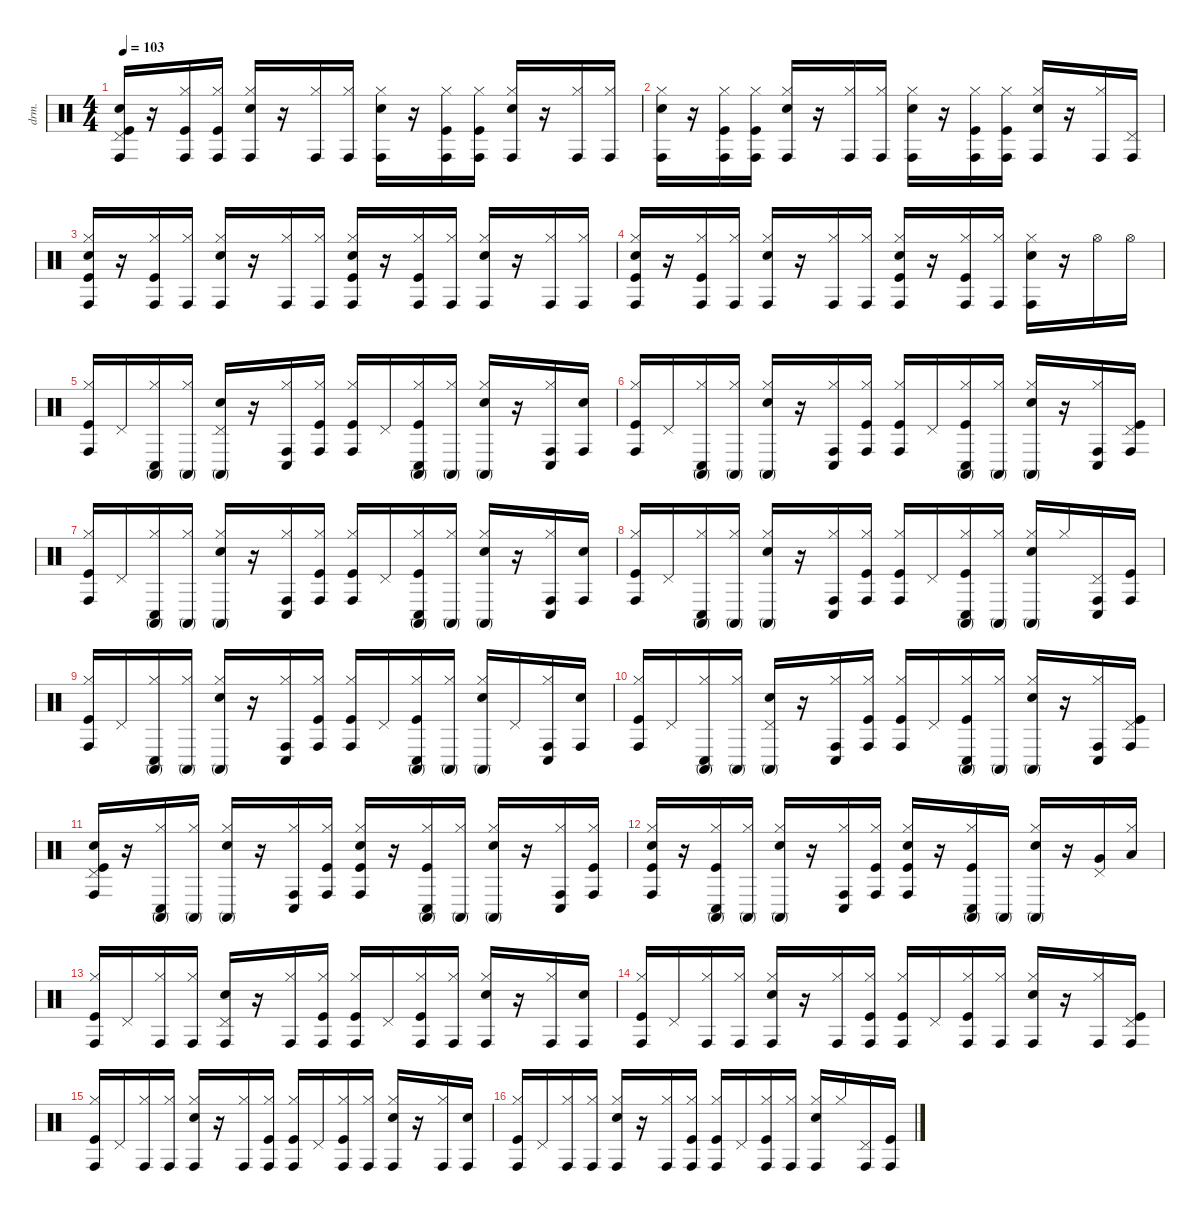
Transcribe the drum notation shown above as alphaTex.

\defaultSystemsLayout 4
\hideDynamics
\bracketExtendMode nobrackets
\otherSystemsTrackNameOrientation horizontal
\track ("drums" "drm.") {instrument percussion}
\staff {score}
\articulation defaults
\ts (4 4)
\tempo 103
\clef neutral
\ks c
("Snare (hit) 2" "Kick (hit)" "Pedal Hi-Hat (hit)" "Conga high (hit)").16{dy f} r.16 ("Kick (hit)" "Hi-Hat (closed)" "Conga high (hit)").16 ("Kick (hit)" "Hi-Hat (closed)" "Conga high (hit)").16 ("Snare (hit) 2" "Hi-Hat (closed)" "Conga high (hit)").16 r.16 ("Hi-Hat (closed)" "Conga high (hit)").16 ("Hi-Hat (closed)" "Conga high (hit)").16 ("Hi-Hat (closed)" "Conga high (hit)" "Snare (hit) 2").16 r.16 ("Kick (hit)" "Hi-Hat (closed)" "Conga high (hit)").16 ("Kick (hit)" "Hi-Hat (closed)" "Conga high (hit)").16 ("Snare (hit) 2" "Hi-Hat (closed)" "Conga high (hit)").16 r.16 ("Hi-Hat (closed)" "Conga high (hit)").16 ("Hi-Hat (closed)" "Conga high (hit)").16 |
("Hi-Hat (closed)" "Conga high (hit)" "Snare (hit) 2").16 r.16 ("Kick (hit)" "Hi-Hat (closed)" "Conga high (hit)").16 ("Kick (hit)" "Hi-Hat (closed)" "Conga high (hit)").16 ("Snare (hit) 2" "Hi-Hat (closed)" "Conga high (hit)").16 r.16 ("Hi-Hat (closed)" "Conga high (hit)").16 ("Hi-Hat (closed)" "Conga high (hit)").16 ("Snare (hit) 2" "Hi-Hat (closed)" "Conga high (hit)").16 r.16 ("Kick (hit)" "Hi-Hat (closed)" "Conga high (hit)").16 ("Kick (hit)" "Hi-Hat (closed)" "Conga high (hit)").16 ("Snare (hit) 2" "Hi-Hat (closed)" "Conga high (hit)").16 r.16 ("Hi-Hat (closed)" "Conga high (hit)").16 ("Pedal Hi-Hat (hit)" "Conga high (hit)").16 |
("Kick (hit)" "Snare (hit) 2" "Hi-Hat (closed)" "Conga high (hit)").16 r.16 ("Kick (hit)" "Hi-Hat (closed)" "Conga high (hit)").16 ("Hi-Hat (closed)" "Conga high (hit)").16 ("Snare (hit) 2" "Hi-Hat (closed)" "Conga high (hit)").16 r.16 ("Hi-Hat (closed)" "Conga high (hit)").16 ("Hi-Hat (closed)" "Conga high (hit)").16 ("Kick (hit)" "Snare (hit) 2" "Hi-Hat (closed)" "Conga high (hit)").16 r.16 ("Kick (hit)" "Hi-Hat (closed)" "Conga high (hit)").16 ("Hi-Hat (closed)" "Conga high (hit)").16 ("Snare (hit) 2" "Hi-Hat (closed)" "Conga high (hit)").16 r.16 ("Hi-Hat (closed)" "Conga high (hit)").16 ("Hi-Hat (closed)" "Conga high (hit)").16 |
("Kick (hit)" "Snare (hit) 2" "Hi-Hat (closed)" "Conga high (hit)").16 r.16 ("Kick (hit)" "Hi-Hat (closed)" "Conga high (hit)").16 ("Hi-Hat (closed)" "Conga high (hit)").16 ("Snare (hit) 2" "Hi-Hat (closed)" "Conga high (hit)").16 r.16 ("Hi-Hat (closed)" "Conga high (hit)").16 ("Hi-Hat (closed)" "Conga high (hit)").16 ("Kick (hit)" "Snare (hit) 2" "Hi-Hat (closed)" "Conga high (hit)").16 r.16 ("Kick (hit)" "Hi-Hat (closed)" "Conga high (hit)").16 ("Hi-Hat (closed)" "Conga high (hit)").16 ("Snare (hit) 2" "Hi-Hat (closed)" "Conga high (hit)").16 r.16 "Hi-Hat (open)".16 "Hi-Hat (open)".16 |
("Kick (hit)" "Hi-Hat (closed)" "Conga high (hit)").16 "Pedal Hi-Hat (hit)".16 ("Hi-Hat (closed)" "Conga high (mute)" "Conga low (hit)").16 ("Hi-Hat (closed)" "Conga high (mute)").16 ("Conga high (mute)" "Snare (hit) 2" "Pedal Hi-Hat (hit)").16 r.16 ("Hi-Hat (closed)" "Conga low (hit)" "Conga high (hit)").16 ("Kick (hit)" "Hi-Hat (closed)" "Conga high (hit)").16 ("Kick (hit)" "Hi-Hat (closed)" "Conga high (hit)").16 "Pedal Hi-Hat (hit)".16 ("Kick (hit)" "Conga low (hit)" "Conga high (mute)" "Hi-Hat (closed)").16 ("Conga high (mute)" "Hi-Hat (closed)").16 ("Conga high (mute)" "Snare (hit) 2" "Hi-Hat (closed)").16 r.16 ("Hi-Hat (closed)" "Conga low (hit)" "Conga high (hit)").16 ("Conga high (hit)" "Snare (hit) 2").16 |
("Kick (hit)" "Hi-Hat (closed)" "Conga high (hit)").16 "Pedal Hi-Hat (hit)".16 ("Conga low (hit)" "Conga high (mute)" "Hi-Hat (closed)").16 ("Conga high (mute)" "Hi-Hat (closed)").16 ("Conga high (mute)" "Snare (hit) 2" "Hi-Hat (closed)").16 r.16 ("Hi-Hat (closed)" "Conga low (hit)" "Conga high (hit)").16 ("Kick (hit)" "Hi-Hat (closed)" "Conga high (hit)").16 ("Kick (hit)" "Hi-Hat (closed)" "Conga high (hit)").16 "Pedal Hi-Hat (hit)".16 ("Kick (hit)" "Conga low (hit)" "Conga high (mute)" "Hi-Hat (closed)").16 ("Conga high (mute)" "Hi-Hat (closed)").16 ("Conga high (mute)" "Snare (hit) 2" "Hi-Hat (closed)").16 r.16 ("Hi-Hat (closed)" "Conga low (hit)" "Conga high (hit)").16 ("Kick (hit)" "Pedal Hi-Hat (hit)" "Conga high (hit)").16 |
("Kick (hit)" "Hi-Hat (closed)" "Conga high (hit)").16 "Pedal Hi-Hat (hit)".16 ("Conga low (hit)" "Conga high (mute)" "Hi-Hat (closed)").16 ("Conga high (mute)" "Hi-Hat (closed)").16 ("Conga high (mute)" "Snare (hit) 2" "Hi-Hat (closed)").16 r.16 ("Hi-Hat (closed)" "Conga low (hit)" "Conga high (hit)").16 ("Kick (hit)" "Hi-Hat (closed)" "Conga high (hit)").16 ("Kick (hit)" "Hi-Hat (closed)" "Conga high (hit)").16 "Pedal Hi-Hat (hit)".16 ("Kick (hit)" "Conga low (hit)" "Conga high (mute)" "Hi-Hat (closed)").16 ("Conga high (mute)" "Hi-Hat (closed)").16 ("Conga high (mute)" "Snare (hit) 2" "Hi-Hat (closed)").16 r.16 ("Hi-Hat (closed)" "Conga low (hit)" "Conga high (hit)").16 ("Conga high (hit)" "Snare (hit) 2").16 |
("Kick (hit)" "Hi-Hat (closed)" "Conga high (hit)").16 "Pedal Hi-Hat (hit)".16 ("Conga low (hit)" "Conga high (mute)" "Hi-Hat (closed)").16 ("Conga high (mute)" "Hi-Hat (closed)").16 ("Conga high (mute)" "Snare (hit) 2" "Hi-Hat (closed)").16 r.16 ("Hi-Hat (closed)" "Conga low (hit)" "Conga high (hit)").16 ("Kick (hit)" "Hi-Hat (closed)" "Conga high (hit)").16 ("Kick (hit)" "Hi-Hat (closed)" "Conga high (hit)").16 "Pedal Hi-Hat (hit)".16 ("Kick (hit)" "Conga low (hit)" "Conga high (mute)" "Hi-Hat (closed)").16 ("Conga high (mute)" "Hi-Hat (closed)").16 ("Conga high (mute)" "Snare (hit) 2" "Hi-Hat (closed)").16 "Hi-Hat (closed)".16 ("Conga low (hit)" "Conga high (hit)" "Pedal Hi-Hat (hit)").16 ("Conga high (hit)" "Kick (hit)").16 |
("Kick (hit)" "Hi-Hat (closed)" "Conga high (hit)").16 "Pedal Hi-Hat (hit)".16 ("Conga low (hit)" "Conga high (mute)" "Hi-Hat (closed)").16 ("Conga high (mute)" "Hi-Hat (closed)").16 ("Conga high (mute)" "Snare (hit) 2" "Hi-Hat (closed)").16 r.16 ("Hi-Hat (closed)" "Conga low (hit)" "Conga high (hit)").16 ("Kick (hit)" "Hi-Hat (closed)" "Conga high (hit)").16 ("Kick (hit)" "Hi-Hat (closed)" "Conga high (hit)").16 "Pedal Hi-Hat (hit)".16 ("Kick (hit)" "Conga low (hit)" "Conga high (mute)" "Hi-Hat (closed)").16 ("Conga high (mute)" "Hi-Hat (closed)").16 ("Conga high (mute)" "Snare (hit) 2" "Hi-Hat (closed)").16 "Pedal Hi-Hat (hit)".16 ("Hi-Hat (closed)" "Conga low (hit)" "Conga high (hit)").16 ("Snare (hit) 2" "Conga high (hit)").16 |
("Kick (hit)" "Hi-Hat (closed)" "Conga high (hit)").16 "Pedal Hi-Hat (hit)".16 ("Hi-Hat (closed)" "Conga low (hit)" "Conga high (mute)").16 ("Hi-Hat (closed)" "Conga high (mute)").16 ("Conga high (mute)" "Snare (hit) 2" "Pedal Hi-Hat (hit)").16 r.16 ("Hi-Hat (closed)" "Conga low (hit)" "Conga high (hit)").16 ("Kick (hit)" "Hi-Hat (closed)" "Conga high (hit)").16 ("Kick (hit)" "Hi-Hat (closed)" "Conga high (hit)").16 "Pedal Hi-Hat (hit)".16 ("Kick (hit)" "Conga low (hit)" "Conga high (mute)" "Hi-Hat (closed)").16 ("Conga high (mute)" "Hi-Hat (closed)").16 ("Conga high (mute)" "Snare (hit) 2" "Hi-Hat (closed)").16 r.16 ("Hi-Hat (closed)" "Conga low (hit)" "Conga high (hit)").16 ("Kick (hit)" "Pedal Hi-Hat (hit)" "Conga high (hit)").16 |
("Kick (hit)" "Snare (hit) 2" "Pedal Hi-Hat (hit)" "Conga high (hit)").16 r.16 ("Conga low (hit)" "Conga high (mute)" "Hi-Hat (closed)").16 ("Conga high (mute)" "Hi-Hat (closed)").16 ("Snare (hit) 2" "Conga high (mute)" "Hi-Hat (closed)").16 r.16 ("Hi-Hat (closed)" "Conga low (hit)" "Conga high (hit)").16 ("Kick (hit)" "Hi-Hat (closed)" "Conga high (hit)").16 ("Kick (hit)" "Snare (hit) 2" "Hi-Hat (closed)" "Conga high (hit)").16 r.16 ("Kick (hit)" "Conga low (hit)" "Conga high (mute)" "Hi-Hat (closed)").16 ("Conga high (mute)" "Hi-Hat (closed)").16 ("Snare (hit) 2" "Conga high (mute)" "Hi-Hat (closed)").16 r.16 ("Hi-Hat (closed)" "Conga low (hit)" "Conga high (hit)").16 ("Kick (hit)" "Hi-Hat (closed)" "Conga high (hit)").16 |
("Kick (hit)" "Snare (hit) 2" "Hi-Hat (closed)" "Conga high (hit)").16 r.16 ("Kick (hit)" "Conga low (hit)" "Conga high (mute)" "Hi-Hat (closed)").16 ("Conga high (mute)" "Hi-Hat (closed)").16 ("Snare (hit) 2" "Conga high (mute)" "Hi-Hat (closed)").16 r.16 ("Conga low (hit)" "Hi-Hat (closed)" "Conga high (hit)").16 ("Kick (hit)" "Hi-Hat (closed)" "Conga high (hit)").16 ("Kick (hit)" "Snare (hit) 2" "Hi-Hat (closed)" "Conga high (hit)").16 r.16 ("Conga low (hit)" "Conga high (mute)" "Kick (hit)" "Hi-Hat (closed)").16 "Conga high (mute)".16 ("Conga high (mute)" "Snare (hit) 2" "Hi-Hat (closed)").16 r.16 ("Very Low Tom (hit)" "Pedal Hi-Hat (hit)").16 ("Low Floor Tom (hit)" "Hi-Hat (closed)").16 |
("Kick (hit)" "Hi-Hat (closed)" "Conga high (hit)").16 "Pedal Hi-Hat (hit)".16 ("Hi-Hat (closed)" "Conga high (hit)").16 ("Hi-Hat (closed)" "Conga high (hit)").16 ("Snare (hit) 2" "Pedal Hi-Hat (hit)" "Conga high (hit)").16 r.16 ("Hi-Hat (closed)" "Conga high (hit)").16 ("Kick (hit)" "Hi-Hat (closed)" "Conga high (hit)").16 ("Kick (hit)" "Hi-Hat (closed)" "Conga high (hit)").16 "Pedal Hi-Hat (hit)".16 ("Kick (hit)" "Hi-Hat (closed)" "Conga high (hit)").16 ("Hi-Hat (closed)" "Conga high (hit)").16 ("Snare (hit) 2" "Hi-Hat (closed)" "Conga high (hit)").16 r.16 ("Hi-Hat (closed)" "Conga high (hit)").16 ("Conga high (hit)" "Snare (hit) 2").16 |
("Kick (hit)" "Hi-Hat (closed)" "Conga high (hit)").16 "Pedal Hi-Hat (hit)".16 ("Hi-Hat (closed)" "Conga high (hit)").16 ("Hi-Hat (closed)" "Conga high (hit)").16 ("Snare (hit) 2" "Hi-Hat (closed)" "Conga high (hit)").16 r.16 ("Hi-Hat (closed)" "Conga high (hit)").16 ("Kick (hit)" "Hi-Hat (closed)" "Conga high (hit)").16 ("Kick (hit)" "Hi-Hat (closed)" "Conga high (hit)").16 "Pedal Hi-Hat (hit)".16 ("Kick (hit)" "Hi-Hat (closed)" "Conga high (hit)").16 ("Hi-Hat (closed)" "Conga high (hit)").16 ("Snare (hit) 2" "Hi-Hat (closed)" "Conga high (hit)").16 r.16 ("Hi-Hat (closed)" "Conga high (hit)").16 ("Kick (hit)" "Pedal Hi-Hat (hit)" "Conga high (hit)").16 |
("Kick (hit)" "Hi-Hat (closed)" "Conga high (hit)").16 "Pedal Hi-Hat (hit)".16 ("Hi-Hat (closed)" "Conga high (hit)").16 ("Hi-Hat (closed)" "Conga high (hit)").16 ("Snare (hit) 2" "Hi-Hat (closed)" "Conga high (hit)").16 r.16 ("Hi-Hat (closed)" "Conga high (hit)").16 ("Kick (hit)" "Hi-Hat (closed)" "Conga high (hit)").16 ("Kick (hit)" "Hi-Hat (closed)" "Conga high (hit)").16 "Pedal Hi-Hat (hit)".16 ("Kick (hit)" "Hi-Hat (closed)" "Conga high (hit)").16 ("Hi-Hat (closed)" "Conga high (hit)").16 ("Snare (hit) 2" "Hi-Hat (closed)" "Conga high (hit)").16 r.16 ("Hi-Hat (closed)" "Conga high (hit)").16 ("Conga high (hit)" "Snare (hit) 2").16 |
("Kick (hit)" "Hi-Hat (closed)" "Conga high (hit)").16 "Pedal Hi-Hat (hit)".16 ("Hi-Hat (closed)" "Conga high (hit)").16 ("Hi-Hat (closed)" "Conga high (hit)").16 ("Snare (hit) 2" "Hi-Hat (closed)" "Conga high (hit)").16 r.16 ("Hi-Hat (closed)" "Conga high (hit)").16 ("Kick (hit)" "Hi-Hat (closed)" "Conga high (hit)").16 ("Kick (hit)" "Hi-Hat (closed)" "Conga high (hit)").16 "Pedal Hi-Hat (hit)".16 ("Kick (hit)" "Hi-Hat (closed)" "Conga high (hit)").16 ("Hi-Hat (closed)" "Conga high (hit)").16 ("Snare (hit) 2" "Hi-Hat (closed)" "Conga high (hit)").16 "Hi-Hat (closed)".16 ("Conga high (hit)" "Pedal Hi-Hat (hit)").16 ("Conga high (hit)" "Kick (hit)").16
